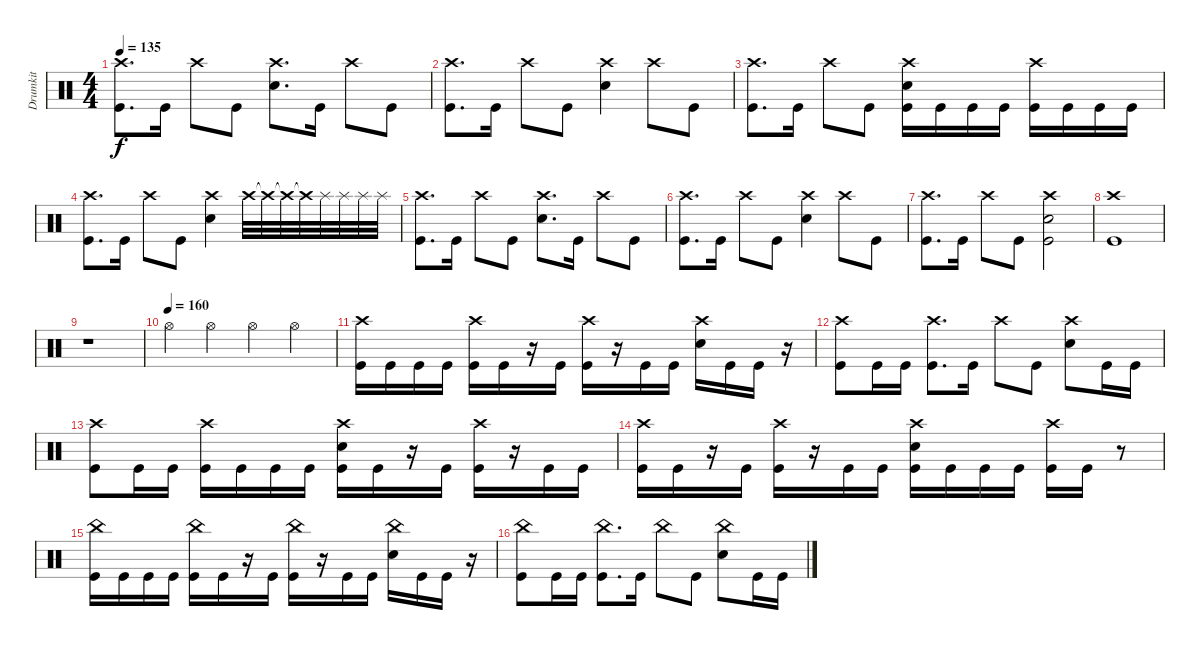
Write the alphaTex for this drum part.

\track ("Drumkit" "Drumkit") {instrument percussion}
\staff {score}
\articulation defaults
\ts (4 4)
\tempo 135
\clef neutral
\ks c
("Crash high (hit)" "Kick (hit)").8{d dy f} "Kick (hit)".16 "Crash high (hit)".8 "Kick (hit)".8 ("Crash high (hit)" "Snare (hit) 2").8{d} "Kick (hit)".16 "Crash high (hit)".8 "Kick (hit)".8 |
("Crash high (hit)" "Kick (hit)").8{d} "Kick (hit)".16 "Crash high (hit)".8 "Kick (hit)".8 ("Crash high (hit)" "Snare (hit) 2").4 "Crash high (hit)".8 "Kick (hit)".8 |
("Crash high (hit)" "Kick (hit)").8{d} "Kick (hit)".16 "Crash high (hit)".8 "Kick (hit)".8 ("Crash high (hit)" "Snare (hit) 2" "Kick (hit)").16 "Kick (hit)".16 "Kick (hit)".16 "Kick (hit)".16 ("Crash high (hit)" "Kick (hit)").16 "Kick (hit)".16 "Kick (hit)".16 "Kick (hit)".16 |
("Crash high (hit)" "Kick (hit)").8{d} "Kick (hit)".16 "Crash high (hit)".8 "Kick (hit)".8 ("Crash high (hit)" "Snare (hit) 2").4 "Crash high (hit)".32 "Crash high (hit)"{t}.32 "Crash high (hit)"{t}.32 "Crash high (hit)"{t}.32 "Splash (hit)".32 "Splash (hit)".32 "Splash (hit)".32 "Splash (hit)".32 |
("Crash high (hit)" "Kick (hit)").8{d} "Kick (hit)".16 "Crash high (hit)".8 "Kick (hit)".8 ("Crash high (hit)" "Snare (hit) 2").8{d} "Kick (hit)".16 "Crash high (hit)".8 "Kick (hit)".8 |
("Crash high (hit)" "Kick (hit)").8{d} "Kick (hit)".16 "Crash high (hit)".8 "Kick (hit)".8 ("Crash high (hit)" "Snare (hit) 2").4 "Crash high (hit)".8 "Kick (hit)".8 |
("Crash high (hit)" "Kick (hit)").8{d} "Kick (hit)".16 "Crash high (hit)".8 "Kick (hit)".8 ("Crash high (hit)" "Snare (hit) 2" "Kick (hit)").2 |
("Crash high (hit)" "Kick (hit)").1 |
r.1 |
\tempo (160)
"Hi-Hat (open)".4 "Hi-Hat (open)".4 "Hi-Hat (open)".4 "Hi-Hat (open)".4 |
("Crash high (hit)" "Kick (hit)").16 "Kick (hit)".16 "Kick (hit)".16 "Kick (hit)".16 ("Crash high (hit)" "Kick (hit)").16 "Kick (hit)".16 r.16 "Kick (hit)".16 ("Crash high (hit)" "Kick (hit)").16 r.16 "Kick (hit)".16 "Kick (hit)".16 ("Crash high (hit)" "Snare (hit) 2").16 "Kick (hit)".16 "Kick (hit)".16 r.16 |
("Crash high (hit)" "Kick (hit)").8 "Kick (hit)".16 "Kick (hit)".16 ("Crash high (hit)" "Kick (hit)").8{d} "Kick (hit)".16 "Crash high (hit)".8 "Kick (hit)".8 ("Crash high (hit)" "Snare (hit) 2").8 "Kick (hit)".16 "Kick (hit)".16 |
("Crash high (hit)" "Kick (hit)").8 "Kick (hit)".16 "Kick (hit)".16 ("Crash high (hit)" "Kick (hit)").16 "Kick (hit)".16 "Kick (hit)".16 "Kick (hit)".16 ("Crash high (hit)" "Kick (hit)" "Snare (hit) 2").16 "Kick (hit)".16 r.16 "Kick (hit)".16 ("Crash high (hit)" "Kick (hit)").16 r.16 "Kick (hit)".16 "Kick (hit)".16 |
("Kick (hit)" "Crash high (hit)").16 "Kick (hit)".16 r.16 "Kick (hit)".16 ("Crash high (hit)" "Kick (hit)").16 r.16 "Kick (hit)".16 "Kick (hit)".16 ("Kick (hit)" "Crash high (hit)" "Snare (hit) 2").16 "Kick (hit)".16 "Kick (hit)".16 "Kick (hit)".16 ("Kick (hit)" "Crash high (hit)").16 "Kick (hit)".16 r.8 |
("China (hit)" "Kick (hit)").16 "Kick (hit)".16 "Kick (hit)".16 "Kick (hit)".16 ("China (hit)" "Kick (hit)").16 "Kick (hit)".16 r.16 "Kick (hit)".16 ("China (hit)" "Kick (hit)").16 r.16 "Kick (hit)".16 "Kick (hit)".16 ("China (hit)" "Snare (hit) 2").16 "Kick (hit)".16 "Kick (hit)".16 r.16 |
("China (hit)" "Kick (hit)").8 "Kick (hit)".16 "Kick (hit)".16 ("China (hit)" "Kick (hit)").8{d} "Kick (hit)".16 "China (hit)".8 "Kick (hit)".8 ("China (hit)" "Snare (hit) 2").8 "Kick (hit)".16 "Kick (hit)".16
